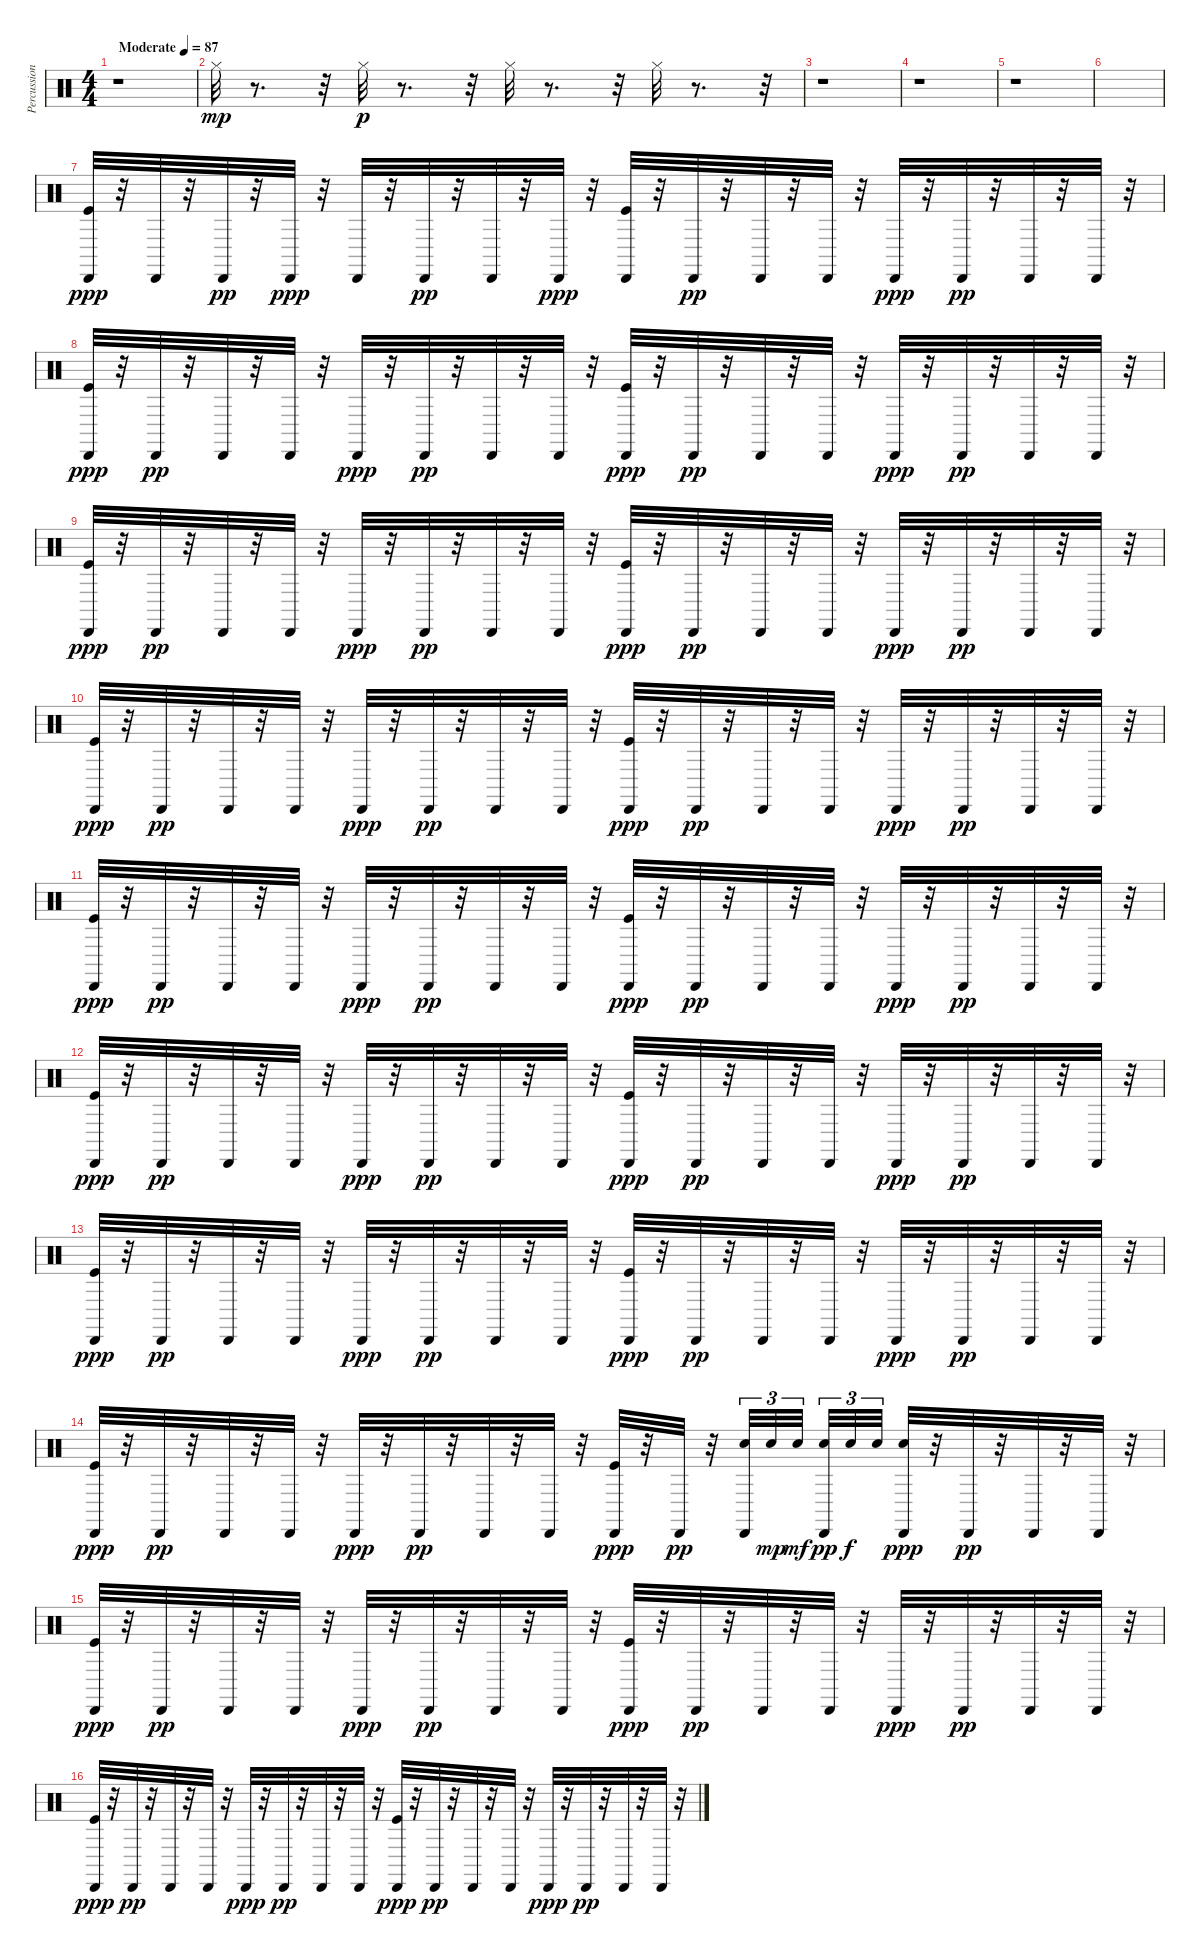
\track ("Percussion" "Percussion") {instrument percussion}
\staff {score}
\articulation defaults
\ts (4 4)
\tempo (87 "Moderate")
\clef neutral
\ks c
r.1{dy mp} |
"Hi-Hat (closed)".32{volume 12} r.8{d} r.32 "Hi-Hat (closed)".32{dy p} r.8{d} r.32 "Hi-Hat (closed)".32 r.8{d} r.32 "Hi-Hat (closed)".32 r.8{d} r.32 |
r.1 |
r.1 |
r.1 |
|
("Kick (hit)" "Cabasa (hit)").32{dy ppp} r.32 "Cabasa (hit)".32 r.32 "Cabasa (hit)".32{dy pp} r.32 "Cabasa (hit)".32{dy ppp} r.32 "Cabasa (hit)".32 r.32 "Cabasa (hit)".32{dy pp} r.32 "Cabasa (hit)".32 r.32 "Cabasa (hit)".32{dy ppp} r.32 ("Kick (hit)" "Cabasa (hit)").32 r.32 "Cabasa (hit)".32{dy pp} r.32 "Cabasa (hit)".32 r.32 "Cabasa (hit)".32 r.32 "Cabasa (hit)".32{dy ppp} r.32 "Cabasa (hit)".32{dy pp} r.32 "Cabasa (hit)".32 r.32 "Cabasa (hit)".32 r.32 |
("Kick (hit)" "Cabasa (hit)").32{dy ppp} r.32 "Cabasa (hit)".32{dy pp} r.32 "Cabasa (hit)".32 r.32 "Cabasa (hit)".32 r.32 "Cabasa (hit)".32{dy ppp} r.32 "Cabasa (hit)".32{dy pp} r.32 "Cabasa (hit)".32 r.32 "Cabasa (hit)".32 r.32 ("Kick (hit)" "Cabasa (hit)").32{dy ppp} r.32 "Cabasa (hit)".32{dy pp} r.32 "Cabasa (hit)".32 r.32 "Cabasa (hit)".32 r.32 "Cabasa (hit)".32{dy ppp} r.32 "Cabasa (hit)".32{dy pp} r.32 "Cabasa (hit)".32 r.32 "Cabasa (hit)".32 r.32 |
("Kick (hit)" "Cabasa (hit)").32{dy ppp} r.32 "Cabasa (hit)".32{dy pp} r.32 "Cabasa (hit)".32 r.32 "Cabasa (hit)".32 r.32 "Cabasa (hit)".32{dy ppp} r.32 "Cabasa (hit)".32{dy pp} r.32 "Cabasa (hit)".32 r.32 "Cabasa (hit)".32 r.32 ("Kick (hit)" "Cabasa (hit)").32{dy ppp} r.32 "Cabasa (hit)".32{dy pp} r.32 "Cabasa (hit)".32 r.32 "Cabasa (hit)".32 r.32 "Cabasa (hit)".32{dy ppp} r.32 "Cabasa (hit)".32{dy pp} r.32 "Cabasa (hit)".32 r.32 "Cabasa (hit)".32 r.32 |
("Kick (hit)" "Cabasa (hit)").32{dy ppp} r.32 "Cabasa (hit)".32{dy pp} r.32 "Cabasa (hit)".32 r.32 "Cabasa (hit)".32 r.32 "Cabasa (hit)".32{dy ppp} r.32 "Cabasa (hit)".32{dy pp} r.32 "Cabasa (hit)".32 r.32 "Cabasa (hit)".32 r.32 ("Kick (hit)" "Cabasa (hit)").32{dy ppp} r.32 "Cabasa (hit)".32{dy pp} r.32 "Cabasa (hit)".32 r.32 "Cabasa (hit)".32 r.32 "Cabasa (hit)".32{dy ppp} r.32 "Cabasa (hit)".32{dy pp} r.32 "Cabasa (hit)".32 r.32 "Cabasa (hit)".32 r.32 |
("Kick (hit)" "Cabasa (hit)").32{dy ppp} r.32 "Cabasa (hit)".32{dy pp} r.32 "Cabasa (hit)".32 r.32 "Cabasa (hit)".32 r.32 "Cabasa (hit)".32{dy ppp} r.32 "Cabasa (hit)".32{dy pp} r.32 "Cabasa (hit)".32 r.32 "Cabasa (hit)".32 r.32 ("Kick (hit)" "Cabasa (hit)").32{dy ppp} r.32 "Cabasa (hit)".32{dy pp} r.32 "Cabasa (hit)".32 r.32 "Cabasa (hit)".32 r.32 "Cabasa (hit)".32{dy ppp} r.32 "Cabasa (hit)".32{dy pp} r.32 "Cabasa (hit)".32 r.32 "Cabasa (hit)".32 r.32 |
("Kick (hit)" "Cabasa (hit)").32{dy ppp} r.32 "Cabasa (hit)".32{dy pp} r.32 "Cabasa (hit)".32 r.32 "Cabasa (hit)".32 r.32 "Cabasa (hit)".32{dy ppp} r.32 "Cabasa (hit)".32{dy pp} r.32 "Cabasa (hit)".32 r.32 "Cabasa (hit)".32 r.32 ("Kick (hit)" "Cabasa (hit)").32{dy ppp} r.32 "Cabasa (hit)".32{dy pp} r.32 "Cabasa (hit)".32 r.32 "Cabasa (hit)".32 r.32 "Cabasa (hit)".32{dy ppp} r.32 "Cabasa (hit)".32{dy pp} r.32 "Cabasa (hit)".32 r.32 "Cabasa (hit)".32 r.32 |
("Kick (hit)" "Cabasa (hit)").32{dy ppp} r.32 "Cabasa (hit)".32{dy pp} r.32 "Cabasa (hit)".32 r.32 "Cabasa (hit)".32 r.32 "Cabasa (hit)".32{dy ppp} r.32 "Cabasa (hit)".32{dy pp} r.32 "Cabasa (hit)".32 r.32 "Cabasa (hit)".32 r.32 ("Kick (hit)" "Cabasa (hit)").32{dy ppp} r.32 "Cabasa (hit)".32{dy pp} r.32 "Cabasa (hit)".32 r.32 "Cabasa (hit)".32 r.32 "Cabasa (hit)".32{dy ppp} r.32 "Cabasa (hit)".32{dy pp} r.32 "Cabasa (hit)".32 r.32 "Cabasa (hit)".32 r.32 |
("Kick (hit)" "Cabasa (hit)").32{dy ppp} r.32 "Cabasa (hit)".32{dy pp} r.32 "Cabasa (hit)".32 r.32 "Cabasa (hit)".32 r.32 "Cabasa (hit)".32{dy ppp} r.32 "Cabasa (hit)".32{dy pp} r.32 "Cabasa (hit)".32 r.32 "Cabasa (hit)".32 r.32 ("Kick (hit)" "Cabasa (hit)").32{dy ppp} r.32 "Cabasa (hit)".32{dy pp} r.32 ("Snare (hit) 2" "Cabasa (hit)").32{tu (3 2)} "Snare (hit) 2".32{tu (3 2) dy mp} "Snare (hit) 2".32{tu (3 2) dy mf beam splitsecondary} ("Snare (hit) 2" "Cabasa (hit)").32{tu (3 2) dy pp} "Snare (hit) 2".32{tu (3 2) dy f} "Snare (hit) 2".32{tu (3 2)} ("Snare (hit) 2" "Cabasa (hit)").32{dy ppp} r.32 "Cabasa (hit)".32{dy pp} r.32 "Cabasa (hit)".32 r.32 "Cabasa (hit)".32 r.32 |
("Kick (hit)" "Cabasa (hit)").32{dy ppp} r.32 "Cabasa (hit)".32{dy pp} r.32 "Cabasa (hit)".32 r.32 "Cabasa (hit)".32 r.32 "Cabasa (hit)".32{dy ppp} r.32 "Cabasa (hit)".32{dy pp} r.32 "Cabasa (hit)".32 r.32 "Cabasa (hit)".32 r.32 ("Kick (hit)" "Cabasa (hit)").32{dy ppp} r.32 "Cabasa (hit)".32{dy pp} r.32 "Cabasa (hit)".32 r.32 "Cabasa (hit)".32 r.32 "Cabasa (hit)".32{dy ppp} r.32 "Cabasa (hit)".32{dy pp} r.32 "Cabasa (hit)".32 r.32 "Cabasa (hit)".32 r.32 |
("Kick (hit)" "Cabasa (hit)").32{dy ppp} r.32 "Cabasa (hit)".32{dy pp} r.32 "Cabasa (hit)".32 r.32 "Cabasa (hit)".32 r.32 "Cabasa (hit)".32{dy ppp} r.32 "Cabasa (hit)".32{dy pp} r.32 "Cabasa (hit)".32 r.32 "Cabasa (hit)".32 r.32 ("Kick (hit)" "Cabasa (hit)").32{dy ppp} r.32 "Cabasa (hit)".32{dy pp} r.32 "Cabasa (hit)".32 r.32 "Cabasa (hit)".32 r.32 "Cabasa (hit)".32{dy ppp} r.32 "Cabasa (hit)".32{dy pp} r.32 "Cabasa (hit)".32 r.32 "Cabasa (hit)".32 r.32
